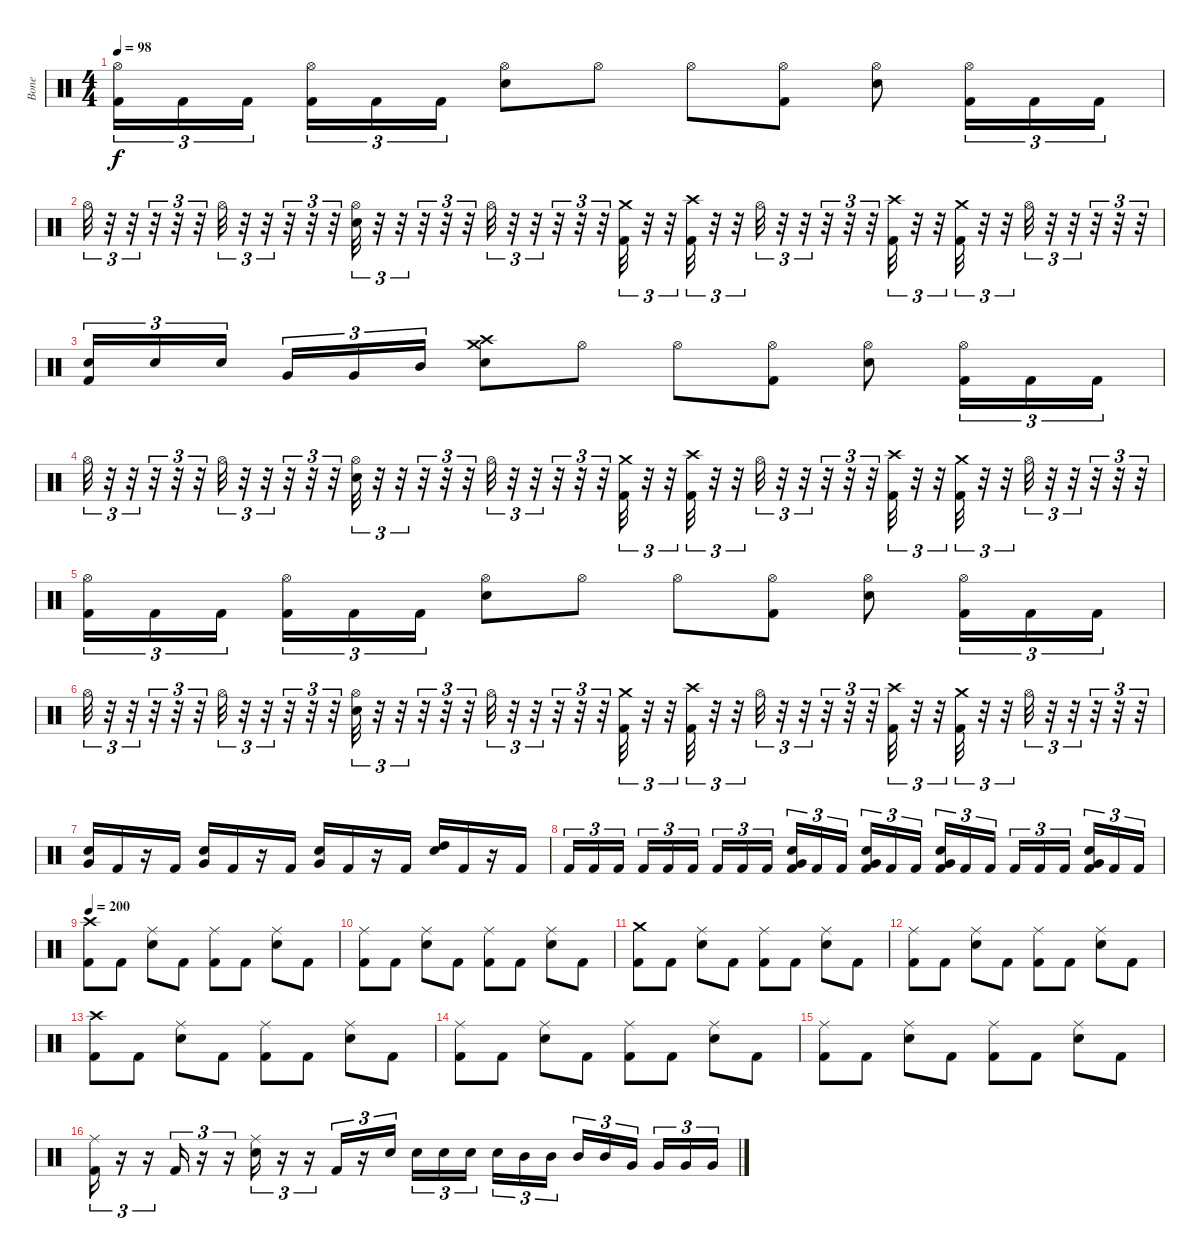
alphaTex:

\track ("Bone " "Bone ") {instrument percussion}
\staff {score}
\articulation defaults
\ts (4 4)
\tempo 98
\clef neutral
\ks c
("Hi-Hat (open)" "Kick (hit) 2").16{tu (3 2) dy f} "Kick (hit) 2".16{tu (3 2)} "Kick (hit) 2".16{tu (3 2) beam splitsecondary} ("Hi-Hat (open)" "Kick (hit) 2").16{tu (3 2)} "Kick (hit) 2".16{tu (3 2)} "Kick (hit) 2".16{tu (3 2)} ("Hi-Hat (open)" "Electric Snare (hit)").8 "Hi-Hat (open)".8 "Hi-Hat (open)".8 ("Hi-Hat (open)" "Kick (hit) 2").8 ("Hi-Hat (open)" "Electric Snare (hit)").8 ("Hi-Hat (open)" "Kick (hit) 2").16{tu (3 2)} "Kick (hit) 2".16{tu (3 2)} "Kick (hit) 2".16{tu (3 2)} |
"Hi-Hat (open)".32{tu (3 2)} r.32{tu (3 2)} r.32{tu (3 2)} r.32{tu (3 2)} r.32{tu (3 2)} r.32{tu (3 2)} "Hi-Hat (open)".32{tu (3 2)} r.32{tu (3 2)} r.32{tu (3 2)} r.32{tu (3 2)} r.32{tu (3 2)} r.32{tu (3 2)} ("Hi-Hat (open)" "Electric Snare (hit)").32{tu (3 2)} r.32{tu (3 2)} r.32{tu (3 2)} r.32{tu (3 2)} r.32{tu (3 2)} r.32{tu (3 2)} "Hi-Hat (open)".32{tu (3 2)} r.32{tu (3 2)} r.32{tu (3 2)} r.32{tu (3 2)} r.32{tu (3 2)} r.32{tu (3 2)} ("Crash medium (hit)" "Kick (hit) 2").32{tu (3 2)} r.32{tu (3 2)} r.32{tu (3 2)} ("Crash high (hit)" "Kick (hit) 2").32{tu (3 2)} r.32{tu (3 2)} r.32{tu (3 2)} "Hi-Hat (open)".32{tu (3 2)} r.32{tu (3 2)} r.32{tu (3 2)} r.32{tu (3 2)} r.32{tu (3 2)} r.32{tu (3 2)} ("Crash high (hit)" "Kick (hit) 2").32{tu (3 2)} r.32{tu (3 2)} r.32{tu (3 2)} ("Crash medium (hit)" "Kick (hit) 2").32{tu (3 2)} r.32{tu (3 2)} r.32{tu (3 2)} "Hi-Hat (open)".32{tu (3 2)} r.32{tu (3 2)} r.32{tu (3 2)} r.32{tu (3 2)} r.32{tu (3 2)} r.32{tu (3 2)} |
("Electric Snare (hit)" "Kick (hit) 2").16{tu (3 2)} "Electric Snare (hit)".16{tu (3 2)} "Electric Snare (hit)".16{tu (3 2) beam splitsecondary} "Very Low Tom (hit)".16{tu (3 2)} "Very Low Tom (hit)".16{tu (3 2)} "Mid Tom (hit)".16{tu (3 2)} ("Crash medium (hit)" "Crash high (hit)" "Electric Snare (hit)").8 "Hi-Hat (open)".8 "Hi-Hat (open)".8 ("Hi-Hat (open)" "Kick (hit) 2").8 ("Hi-Hat (open)" "Electric Snare (hit)").8 ("Hi-Hat (open)" "Kick (hit) 2").16{tu (3 2)} "Kick (hit) 2".16{tu (3 2)} "Kick (hit) 2".16{tu (3 2)} |
"Hi-Hat (open)".32{tu (3 2)} r.32{tu (3 2)} r.32{tu (3 2)} r.32{tu (3 2)} r.32{tu (3 2)} r.32{tu (3 2)} "Hi-Hat (open)".32{tu (3 2)} r.32{tu (3 2)} r.32{tu (3 2)} r.32{tu (3 2)} r.32{tu (3 2)} r.32{tu (3 2)} ("Hi-Hat (open)" "Electric Snare (hit)").32{tu (3 2)} r.32{tu (3 2)} r.32{tu (3 2)} r.32{tu (3 2)} r.32{tu (3 2)} r.32{tu (3 2)} "Hi-Hat (open)".32{tu (3 2)} r.32{tu (3 2)} r.32{tu (3 2)} r.32{tu (3 2)} r.32{tu (3 2)} r.32{tu (3 2)} ("Crash medium (hit)" "Kick (hit) 2").32{tu (3 2)} r.32{tu (3 2)} r.32{tu (3 2)} ("Crash high (hit)" "Kick (hit) 2").32{tu (3 2)} r.32{tu (3 2)} r.32{tu (3 2)} "Hi-Hat (open)".32{tu (3 2)} r.32{tu (3 2)} r.32{tu (3 2)} r.32{tu (3 2)} r.32{tu (3 2)} r.32{tu (3 2)} ("Crash high (hit)" "Kick (hit) 2").32{tu (3 2)} r.32{tu (3 2)} r.32{tu (3 2)} ("Crash medium (hit)" "Kick (hit) 2").32{tu (3 2)} r.32{tu (3 2)} r.32{tu (3 2)} "Hi-Hat (open)".32{tu (3 2)} r.32{tu (3 2)} r.32{tu (3 2)} r.32{tu (3 2)} r.32{tu (3 2)} r.32{tu (3 2)} |
("Hi-Hat (open)" "Kick (hit) 2").16{tu (3 2)} "Kick (hit) 2".16{tu (3 2)} "Kick (hit) 2".16{tu (3 2) beam splitsecondary} ("Hi-Hat (open)" "Kick (hit) 2").16{tu (3 2)} "Kick (hit) 2".16{tu (3 2)} "Kick (hit) 2".16{tu (3 2)} ("Hi-Hat (open)" "Electric Snare (hit)").8 "Hi-Hat (open)".8 "Hi-Hat (open)".8 ("Hi-Hat (open)" "Kick (hit) 2").8 ("Hi-Hat (open)" "Electric Snare (hit)").8 ("Hi-Hat (open)" "Kick (hit) 2").16{tu (3 2)} "Kick (hit) 2".16{tu (3 2)} "Kick (hit) 2".16{tu (3 2)} |
"Hi-Hat (open)".32{tu (3 2)} r.32{tu (3 2)} r.32{tu (3 2)} r.32{tu (3 2)} r.32{tu (3 2)} r.32{tu (3 2)} "Hi-Hat (open)".32{tu (3 2)} r.32{tu (3 2)} r.32{tu (3 2)} r.32{tu (3 2)} r.32{tu (3 2)} r.32{tu (3 2)} ("Hi-Hat (open)" "Electric Snare (hit)").32{tu (3 2)} r.32{tu (3 2)} r.32{tu (3 2)} r.32{tu (3 2)} r.32{tu (3 2)} r.32{tu (3 2)} "Hi-Hat (open)".32{tu (3 2)} r.32{tu (3 2)} r.32{tu (3 2)} r.32{tu (3 2)} r.32{tu (3 2)} r.32{tu (3 2)} ("Crash medium (hit)" "Kick (hit) 2").32{tu (3 2)} r.32{tu (3 2)} r.32{tu (3 2)} ("Crash high (hit)" "Kick (hit) 2").32{tu (3 2)} r.32{tu (3 2)} r.32{tu (3 2)} "Hi-Hat (open)".32{tu (3 2)} r.32{tu (3 2)} r.32{tu (3 2)} r.32{tu (3 2)} r.32{tu (3 2)} r.32{tu (3 2)} ("Crash high (hit)" "Kick (hit) 2").32{tu (3 2)} r.32{tu (3 2)} r.32{tu (3 2)} ("Crash medium (hit)" "Kick (hit) 2").32{tu (3 2)} r.32{tu (3 2)} r.32{tu (3 2)} "Hi-Hat (open)".32{tu (3 2)} r.32{tu (3 2)} r.32{tu (3 2)} r.32{tu (3 2)} r.32{tu (3 2)} r.32{tu (3 2)} |
("Very Low Tom (hit)" "Electric Snare (hit)").16 "Kick (hit) 2".16 r.16 "Kick (hit) 2".16 ("Very Low Tom (hit)" "Electric Snare (hit)").16 "Kick (hit) 2".16 r.16 "Kick (hit) 2".16 ("Very Low Tom (hit)" "Electric Snare (hit)").16 "Kick (hit) 2".16 r.16 "Kick (hit) 2".16 ("High Tom (hit)" "Electric Snare (hit)").16 "Kick (hit) 2".16 r.16 "Kick (hit) 2".16 |
"Kick (hit) 2".16{tu (3 2)} "Kick (hit) 2".16{tu (3 2)} "Kick (hit) 2".16{tu (3 2) beam splitsecondary} "Kick (hit) 2".16{tu (3 2)} "Kick (hit) 2".16{tu (3 2)} "Kick (hit) 2".16{tu (3 2)} "Kick (hit) 2".16{tu (3 2)} "Kick (hit) 2".16{tu (3 2)} "Kick (hit) 2".16{tu (3 2) beam splitsecondary} ("Very Low Tom (hit)" "Electric Snare (hit)" "Kick (hit) 2").16{tu (3 2)} "Kick (hit) 2".16{tu (3 2)} "Kick (hit) 2".16{tu (3 2)} ("Very Low Tom (hit)" "Electric Snare (hit)" "Kick (hit) 2").16{tu (3 2)} "Kick (hit) 2".16{tu (3 2)} "Kick (hit) 2".16{tu (3 2) beam splitsecondary} ("Very Low Tom (hit)" "Electric Snare (hit)" "Kick (hit) 2").16{tu (3 2)} "Kick (hit) 2".16{tu (3 2)} "Kick (hit) 2".16{tu (3 2)} "Kick (hit) 2".16{tu (3 2)} "Kick (hit) 2".16{tu (3 2)} "Kick (hit) 2".16{tu (3 2) beam splitsecondary} ("Very Low Tom (hit)" "Electric Snare (hit)" "Kick (hit) 2").16{tu (3 2)} "Kick (hit) 2".16{tu (3 2)} "Kick (hit) 2".16{tu (3 2)} |
\tempo 200
("Crash high (hit)" "Kick (hit) 2").8 "Kick (hit) 2".8 ("Ride (middle)" "Electric Snare (hit)").8 "Kick (hit) 2".8 ("Ride (middle)" "Kick (hit) 2").8 "Kick (hit) 2".8 ("Ride (middle)" "Electric Snare (hit)").8 "Kick (hit) 2".8 |
("Ride (middle)" "Kick (hit) 2").8 "Kick (hit) 2".8 ("Ride (middle)" "Electric Snare (hit)").8 "Kick (hit) 2".8 ("Ride (middle)" "Kick (hit) 2").8 "Kick (hit) 2".8 ("Ride (middle)" "Electric Snare (hit)").8 "Kick (hit) 2".8 |
("Crash medium (hit)" "Kick (hit) 2").8 "Kick (hit) 2".8 ("Ride (middle)" "Electric Snare (hit)").8 "Kick (hit) 2".8 ("Ride (middle)" "Kick (hit) 2").8 "Kick (hit) 2".8 ("Ride (middle)" "Electric Snare (hit)").8 "Kick (hit) 2".8 |
("Ride (middle)" "Kick (hit) 2").8 "Kick (hit) 2".8 ("Ride (middle)" "Electric Snare (hit)").8 "Kick (hit) 2".8 ("Ride (middle)" "Kick (hit) 2").8 "Kick (hit) 2".8 ("Ride (middle)" "Electric Snare (hit)").8 "Kick (hit) 2".8 |
("Crash high (hit)" "Kick (hit) 2").8 "Kick (hit) 2".8 ("Ride (middle)" "Electric Snare (hit)").8 "Kick (hit) 2".8 ("Ride (middle)" "Kick (hit) 2").8 "Kick (hit) 2".8 ("Ride (middle)" "Electric Snare (hit)").8 "Kick (hit) 2".8 |
("Ride (middle)" "Kick (hit) 2").8 "Kick (hit) 2".8 ("Ride (middle)" "Electric Snare (hit)").8 "Kick (hit) 2".8 ("Ride (middle)" "Kick (hit) 2").8 "Kick (hit) 2".8 ("Ride (middle)" "Electric Snare (hit)").8 "Kick (hit) 2".8 |
("Ride (middle)" "Kick (hit) 2").8 "Kick (hit) 2".8 ("Ride (middle)" "Electric Snare (hit)").8 "Kick (hit) 2".8 ("Ride (middle)" "Kick (hit) 2").8 "Kick (hit) 2".8 ("Ride (middle)" "Electric Snare (hit)").8 "Kick (hit) 2".8 |
("Ride (middle)" "Kick (hit) 2").16{tu (3 2)} r.16{tu (3 2)} r.16{tu (3 2)} "Kick (hit) 2".16{tu (3 2)} r.16{tu (3 2)} r.16{tu (3 2)} ("Ride (middle)" "Electric Snare (hit)").16{tu (3 2)} r.16{tu (3 2)} r.16{tu (3 2)} "Kick (hit) 2".16{tu (3 2)} r.16{tu (3 2)} "Electric Snare (hit)".16{tu (3 2)} "Electric Snare (hit)".16{tu (3 2)} "Electric Snare (hit)".16{tu (3 2)} "Electric Snare (hit)".16{tu (3 2) beam splitsecondary} "Electric Snare (hit)".16{tu (3 2)} "Mid Tom (hit)".16{tu (3 2)} "Mid Tom (hit)".16{tu (3 2)} "Mid Tom (hit)".16{tu (3 2)} "Mid Tom (hit)".16{tu (3 2)} "Very Low Tom (hit)".16{tu (3 2) beam splitsecondary} "Very Low Tom (hit)".16{tu (3 2)} "Very Low Tom (hit)".16{tu (3 2)} "Very Low Tom (hit)".16{tu (3 2)}
